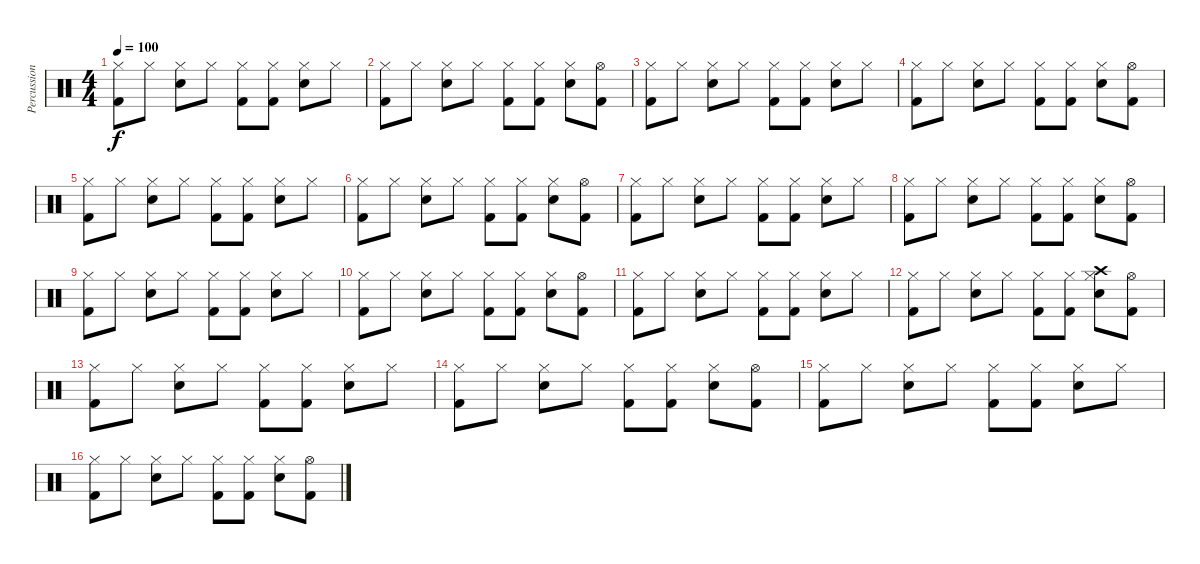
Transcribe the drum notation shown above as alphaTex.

\track ("Percussion" "Percussion") {instrument percussion}
\staff {score}
\articulation defaults
\ts (4 4)
\tempo 100
\clef neutral
\ks c
("Kick (hit) 2" "Hi-Hat (closed)").8{dy f} "Hi-Hat (closed)".8 ("Snare (hit) 2" "Hi-Hat (closed)").8 "Hi-Hat (closed)".8 ("Kick (hit) 2" "Hi-Hat (closed)").8 ("Kick (hit) 2" "Hi-Hat (closed)").8 ("Snare (hit) 2" "Hi-Hat (closed)").8 "Hi-Hat (closed)".8 |
("Kick (hit) 2" "Hi-Hat (closed)").8 "Hi-Hat (closed)".8 ("Snare (hit) 2" "Hi-Hat (closed)").8 "Hi-Hat (closed)".8 ("Kick (hit) 2" "Hi-Hat (closed)").8 ("Kick (hit) 2" "Hi-Hat (closed)").8 ("Snare (hit) 2" "Hi-Hat (closed)").8 ("Kick (hit) 2" "Hi-Hat (open)").8 |
("Kick (hit) 2" "Hi-Hat (closed)").8 "Hi-Hat (closed)".8 ("Snare (hit) 2" "Hi-Hat (closed)").8 "Hi-Hat (closed)".8 ("Kick (hit) 2" "Hi-Hat (closed)").8 ("Kick (hit) 2" "Hi-Hat (closed)").8 ("Snare (hit) 2" "Hi-Hat (closed)").8 "Hi-Hat (closed)".8 |
("Kick (hit) 2" "Hi-Hat (closed)").8 "Hi-Hat (closed)".8 ("Snare (hit) 2" "Hi-Hat (closed)").8 "Hi-Hat (closed)".8 ("Kick (hit) 2" "Hi-Hat (closed)").8 ("Kick (hit) 2" "Hi-Hat (closed)").8 ("Snare (hit) 2" "Hi-Hat (closed)").8 ("Kick (hit) 2" "Hi-Hat (open)").8 |
("Kick (hit) 2" "Hi-Hat (closed)").8 "Hi-Hat (closed)".8 ("Snare (hit) 2" "Hi-Hat (closed)").8 "Hi-Hat (closed)".8 ("Kick (hit) 2" "Hi-Hat (closed)").8 ("Kick (hit) 2" "Hi-Hat (closed)").8 ("Snare (hit) 2" "Hi-Hat (closed)").8 "Hi-Hat (closed)".8 |
("Kick (hit) 2" "Hi-Hat (closed)").8 "Hi-Hat (closed)".8 ("Snare (hit) 2" "Hi-Hat (closed)").8 "Hi-Hat (closed)".8 ("Kick (hit) 2" "Hi-Hat (closed)").8 ("Kick (hit) 2" "Hi-Hat (closed)").8 ("Snare (hit) 2" "Hi-Hat (closed)").8 ("Kick (hit) 2" "Hi-Hat (open)").8 |
("Kick (hit) 2" "Hi-Hat (closed)").8 "Hi-Hat (closed)".8 ("Snare (hit) 2" "Hi-Hat (closed)").8 "Hi-Hat (closed)".8 ("Kick (hit) 2" "Hi-Hat (closed)").8 ("Kick (hit) 2" "Hi-Hat (closed)").8 ("Snare (hit) 2" "Hi-Hat (closed)").8 "Hi-Hat (closed)".8 |
("Kick (hit) 2" "Hi-Hat (closed)").8 "Hi-Hat (closed)".8 ("Snare (hit) 2" "Hi-Hat (closed)").8 "Hi-Hat (closed)".8 ("Kick (hit) 2" "Hi-Hat (closed)").8 ("Kick (hit) 2" "Hi-Hat (closed)").8 ("Snare (hit) 2" "Hi-Hat (closed)").8 ("Kick (hit) 2" "Hi-Hat (open)").8 |
("Kick (hit) 2" "Hi-Hat (closed)").8 "Hi-Hat (closed)".8 ("Snare (hit) 2" "Hi-Hat (closed)").8 "Hi-Hat (closed)".8 ("Kick (hit) 2" "Hi-Hat (closed)").8 ("Kick (hit) 2" "Hi-Hat (closed)").8 ("Snare (hit) 2" "Hi-Hat (closed)").8 "Hi-Hat (closed)".8 |
("Kick (hit) 2" "Hi-Hat (closed)").8 "Hi-Hat (closed)".8 ("Snare (hit) 2" "Hi-Hat (closed)").8 "Hi-Hat (closed)".8 ("Kick (hit) 2" "Hi-Hat (closed)").8 ("Kick (hit) 2" "Hi-Hat (closed)").8 ("Snare (hit) 2" "Hi-Hat (closed)").8 ("Kick (hit) 2" "Hi-Hat (open)").8 |
("Kick (hit) 2" "Hi-Hat (closed)").8 "Hi-Hat (closed)".8 ("Snare (hit) 2" "Hi-Hat (closed)").8 "Hi-Hat (closed)".8 ("Kick (hit) 2" "Hi-Hat (closed)").8 ("Kick (hit) 2" "Hi-Hat (closed)").8 ("Snare (hit) 2" "Hi-Hat (closed)").8 "Hi-Hat (closed)".8 |
("Kick (hit) 2" "Hi-Hat (closed)").8 "Hi-Hat (closed)".8 ("Snare (hit) 2" "Hi-Hat (closed)").8 "Hi-Hat (closed)".8 ("Kick (hit) 2" "Hi-Hat (closed)").8 ("Kick (hit) 2" "Hi-Hat (closed)").8 ("Crash high (hit)" "Snare (hit) 2" "Hi-Hat (closed)").8 ("Kick (hit) 2" "Hi-Hat (open)").8 |
("Kick (hit) 2" "Hi-Hat (closed)").8 "Hi-Hat (closed)".8 ("Snare (hit) 2" "Hi-Hat (closed)").8 "Hi-Hat (closed)".8 ("Kick (hit) 2" "Hi-Hat (closed)").8 ("Kick (hit) 2" "Hi-Hat (closed)").8 ("Snare (hit) 2" "Hi-Hat (closed)").8 "Hi-Hat (closed)".8 |
("Kick (hit) 2" "Hi-Hat (closed)").8 "Hi-Hat (closed)".8 ("Snare (hit) 2" "Hi-Hat (closed)").8 "Hi-Hat (closed)".8 ("Kick (hit) 2" "Hi-Hat (closed)").8 ("Kick (hit) 2" "Hi-Hat (closed)").8 ("Snare (hit) 2" "Hi-Hat (closed)").8 ("Kick (hit) 2" "Hi-Hat (open)").8 |
("Kick (hit) 2" "Hi-Hat (closed)").8 "Hi-Hat (closed)".8 ("Snare (hit) 2" "Hi-Hat (closed)").8 "Hi-Hat (closed)".8 ("Kick (hit) 2" "Hi-Hat (closed)").8 ("Kick (hit) 2" "Hi-Hat (closed)").8 ("Snare (hit) 2" "Hi-Hat (closed)").8 "Hi-Hat (closed)".8 |
("Kick (hit) 2" "Hi-Hat (closed)").8 "Hi-Hat (closed)".8 ("Snare (hit) 2" "Hi-Hat (closed)").8 "Hi-Hat (closed)".8 ("Kick (hit) 2" "Hi-Hat (closed)").8 ("Kick (hit) 2" "Hi-Hat (closed)").8 ("Snare (hit) 2" "Hi-Hat (closed)").8 ("Kick (hit) 2" "Hi-Hat (open)").8
